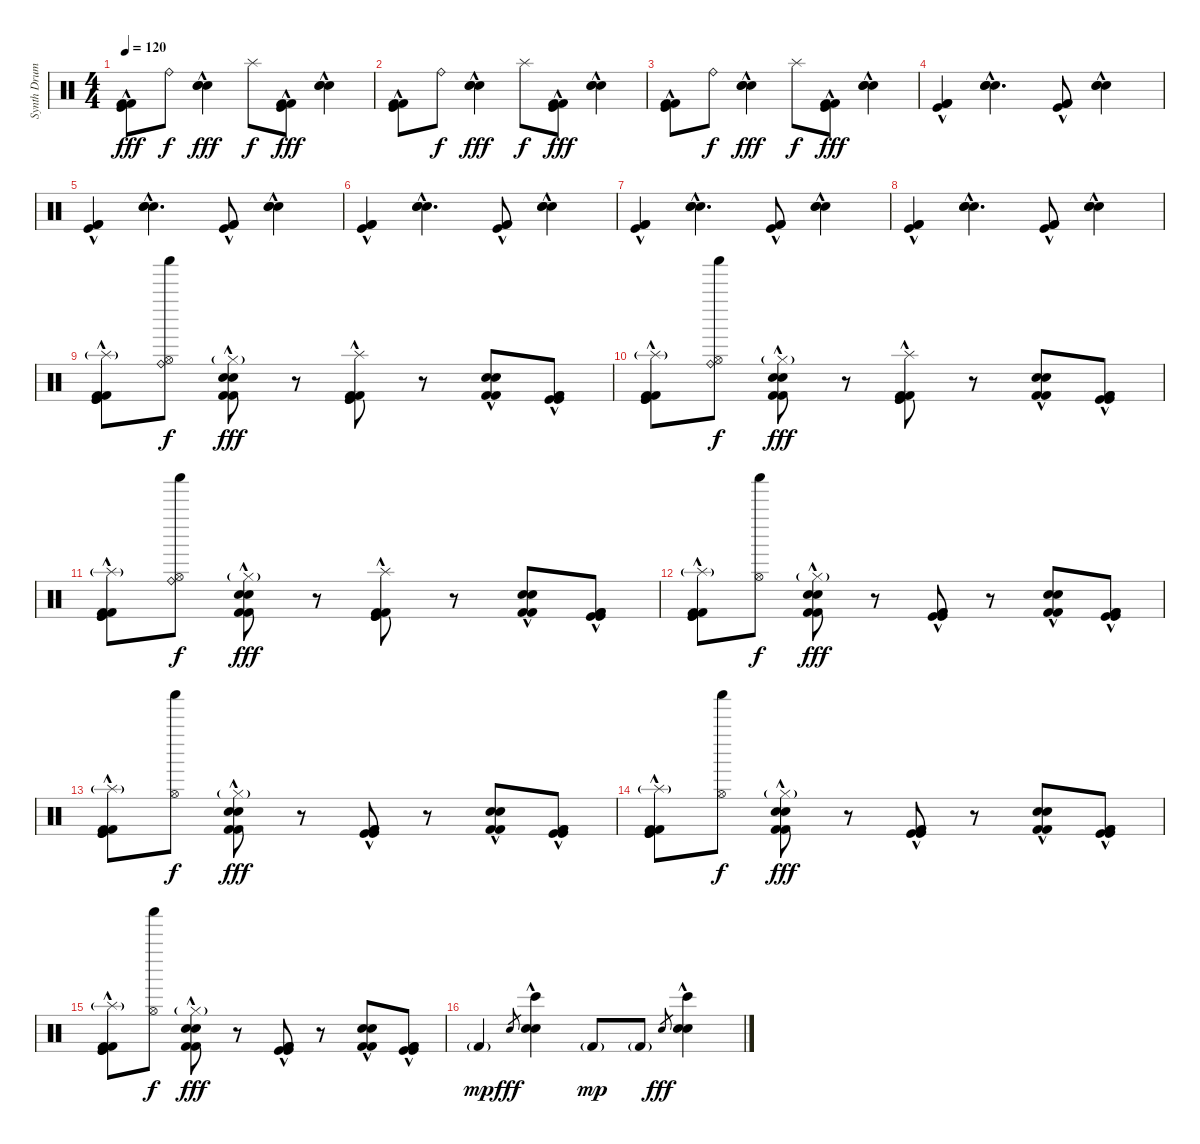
\track ("Synth Drum" "Synth Drum") {instrument percussion}
\staff {score}
\articulation defaults
\ts (4 4)
\tempo 120
\clef neutral
\ks c
("Kick (hit) 2"{hac} "Kick (hit)"{hac} "Kick (hit) 2"{hac}).8{dy fff} "Ride (bell)".8{dy f} ("Electric Snare (hit)"{hac} "Electric Snare (hit)"{hac} "Snare (hit) 2"{hac}).4{dy fff} "Splash (hit)".8{dy f} ("Kick (hit)"{hac} "Kick (hit) 2"{hac} "Kick (hit) 2"{hac}).8{dy fff} ("Electric Snare (hit)"{hac} "Electric Snare (hit)"{hac} "Snare (hit) 2"{hac}).4 |
("Kick (hit) 2"{hac} "Kick (hit)"{hac} "Kick (hit) 2"{hac}).8 "Ride (bell)".8{dy f} ("Electric Snare (hit)"{hac} "Electric Snare (hit)"{hac} "Snare (hit) 2"{hac}).4{dy fff} "Splash (hit)".8{dy f} ("Kick (hit)"{hac} "Kick (hit) 2"{hac} "Kick (hit) 2"{hac}).8{dy fff} ("Electric Snare (hit)"{hac} "Electric Snare (hit)"{hac} "Snare (hit) 2"{hac}).4 |
("Kick (hit) 2"{hac} "Kick (hit)"{hac} "Kick (hit) 2"{hac}).8 "Ride (bell)".8{dy f} ("Electric Snare (hit)"{hac} "Electric Snare (hit)"{hac} "Snare (hit) 2"{hac}).4{dy fff} "Splash (hit)".8{dy f} ("Kick (hit)"{hac} "Kick (hit) 2"{hac} "Kick (hit) 2"{hac}).8{dy fff} ("Electric Snare (hit)"{hac} "Electric Snare (hit)"{hac} "Snare (hit) 2"{hac}).4 |
("Kick (hit) 2"{hac} "Kick (hit)"{hac} "Kick (hit) 2"{hac}).4 ("Electric Snare (hit)"{hac} "Electric Snare (hit)"{hac} "Snare (hit) 2"{hac}).4{d} ("Kick (hit)"{hac} "Kick (hit) 2"{hac} "Kick (hit) 2"{hac}).8 ("Electric Snare (hit)"{hac} "Electric Snare (hit)"{hac} "Snare (hit) 2"{hac}).4 |
("Kick (hit) 2"{hac} "Kick (hit)"{hac} "Kick (hit) 2"{hac}).4 ("Electric Snare (hit)"{hac} "Electric Snare (hit)"{hac} "Snare (hit) 2"{hac}).4{d} ("Kick (hit)"{hac} "Kick (hit) 2"{hac} "Kick (hit) 2"{hac}).8 ("Electric Snare (hit)"{hac} "Electric Snare (hit)"{hac} "Snare (hit) 2"{hac}).4 |
("Kick (hit) 2"{hac} "Kick (hit)"{hac} "Kick (hit) 2"{hac}).4 ("Electric Snare (hit)"{hac} "Electric Snare (hit)"{hac} "Snare (hit) 2"{hac}).4{d} ("Kick (hit)"{hac} "Kick (hit) 2"{hac} "Kick (hit) 2"{hac}).8 ("Electric Snare (hit)"{hac} "Electric Snare (hit)"{hac} "Snare (hit) 2"{hac}).4 |
("Kick (hit) 2"{hac} "Kick (hit)"{hac} "Kick (hit) 2"{hac}).4 ("Electric Snare (hit)"{hac} "Electric Snare (hit)"{hac} "Snare (hit) 2"{hac}).4{d} ("Kick (hit)"{hac} "Kick (hit) 2"{hac} "Kick (hit) 2"{hac}).8 ("Electric Snare (hit)"{hac} "Electric Snare (hit)"{hac} "Snare (hit) 2"{hac}).4 |
("Kick (hit) 2"{hac} "Kick (hit)"{hac} "Kick (hit) 2"{hac}).4 ("Electric Snare (hit)"{hac} "Electric Snare (hit)"{hac} "Snare (hit) 2"{hac}).4{d} ("Kick (hit)"{hac} "Kick (hit) 2"{hac} "Kick (hit) 2"{hac}).8 ("Electric Snare (hit)"{hac} "Electric Snare (hit)"{hac} "Snare (hit) 2"{hac}).4 |
("Splash (hit)"{g} "Kick (hit)"{hac} "Kick (hit) 2"{hac} "Kick (hit)"{hac} "Kick (hit) 2"{hac}).8 ("Shaker (hit)" "Hi-Hat (open)" "Ride (bell)").8{dy f} ("Hi-Hat (closed)"{g} "Snare (hit) 2"{hac} "Electric Snare (hit)"{hac} "Kick (hit) 2"{hac} "Kick (hit) 2"{hac}).8{dy fff} r.8 ("Splash (hit)" "Kick (hit)"{hac} "Kick (hit)"{hac} "Kick (hit) 2"{hac} "Kick (hit) 2"{hac}).8 r.8 ("Snare (hit) 2"{hac} "Electric Snare (hit)"{hac} "Kick (hit) 2"{hac} "Kick (hit) 2"{hac}).8 ("Kick (hit)"{hac} "Kick (hit)"{hac} "Kick (hit) 2"{hac} "Kick (hit) 2"{hac}).8 |
("Splash (hit)"{g} "Kick (hit)"{hac} "Kick (hit) 2"{hac} "Kick (hit)"{hac} "Kick (hit) 2"{hac}).8 ("Shaker (hit)" "Hi-Hat (open)" "Ride (bell)").8{dy f} ("Hi-Hat (closed)"{g} "Snare (hit) 2"{hac} "Electric Snare (hit)"{hac} "Kick (hit) 2"{hac} "Kick (hit) 2"{hac}).8{dy fff} r.8 ("Splash (hit)" "Kick (hit)"{hac} "Kick (hit)"{hac} "Kick (hit) 2"{hac} "Kick (hit) 2"{hac}).8 r.8 ("Snare (hit) 2"{hac} "Electric Snare (hit)"{hac} "Kick (hit) 2"{hac} "Kick (hit) 2"{hac}).8 ("Kick (hit)"{hac} "Kick (hit)"{hac} "Kick (hit) 2"{hac} "Kick (hit) 2"{hac}).8 |
("Splash (hit)"{g} "Kick (hit)"{hac} "Kick (hit) 2"{hac} "Kick (hit)"{hac} "Kick (hit) 2"{hac}).8 ("Shaker (hit)" "Hi-Hat (open)" "Ride (bell)").8{dy f} ("Hi-Hat (closed)"{g} "Snare (hit) 2"{hac} "Electric Snare (hit)"{hac} "Kick (hit) 2"{hac} "Kick (hit) 2"{hac}).8{dy fff} r.8 ("Splash (hit)" "Kick (hit)"{hac} "Kick (hit)"{hac} "Kick (hit) 2"{hac} "Kick (hit) 2"{hac}).8 r.8 ("Snare (hit) 2"{hac} "Electric Snare (hit)"{hac} "Kick (hit) 2"{hac} "Kick (hit) 2"{hac}).8 ("Kick (hit)"{hac} "Kick (hit)"{hac} "Kick (hit) 2"{hac} "Kick (hit) 2"{hac}).8 |
("Splash (hit)"{g} "Kick (hit)"{hac} "Kick (hit) 2"{hac} "Kick (hit)"{hac} "Kick (hit) 2"{hac}).8 ("Shaker (hit)" "Hi-Hat (open)").8{dy f} ("Hi-Hat (closed)"{g} "Snare (hit) 2"{hac} "Electric Snare (hit)"{hac} "Kick (hit) 2"{hac} "Kick (hit) 2"{hac}).8{dy fff} r.8 ("Kick (hit)"{hac} "Kick (hit)"{hac} "Kick (hit) 2"{hac} "Kick (hit) 2"{hac}).8 r.8 ("Snare (hit) 2"{hac} "Electric Snare (hit)"{hac} "Kick (hit) 2"{hac} "Kick (hit) 2"{hac}).8 ("Kick (hit)"{hac} "Kick (hit)"{hac} "Kick (hit) 2"{hac} "Kick (hit) 2"{hac}).8 |
("Splash (hit)"{g} "Kick (hit)"{hac} "Kick (hit) 2"{hac} "Kick (hit)"{hac} "Kick (hit) 2"{hac}).8 ("Shaker (hit)" "Hi-Hat (open)").8{dy f} ("Hi-Hat (closed)"{g} "Snare (hit) 2"{hac} "Electric Snare (hit)"{hac} "Kick (hit) 2"{hac} "Kick (hit) 2"{hac}).8{dy fff} r.8 ("Kick (hit)"{hac} "Kick (hit)"{hac} "Kick (hit) 2"{hac} "Kick (hit) 2"{hac}).8 r.8 ("Snare (hit) 2"{hac} "Electric Snare (hit)"{hac} "Kick (hit) 2"{hac} "Kick (hit) 2"{hac}).8 ("Kick (hit)"{hac} "Kick (hit)"{hac} "Kick (hit) 2"{hac} "Kick (hit) 2"{hac}).8 |
("Splash (hit)"{g} "Kick (hit)"{hac} "Kick (hit) 2"{hac} "Kick (hit)"{hac} "Kick (hit) 2"{hac}).8 ("Shaker (hit)" "Hi-Hat (open)").8{dy f} ("Hi-Hat (closed)"{g} "Snare (hit) 2"{hac} "Electric Snare (hit)"{hac} "Kick (hit) 2"{hac} "Kick (hit) 2"{hac}).8{dy fff} r.8 ("Kick (hit)"{hac} "Kick (hit)"{hac} "Kick (hit) 2"{hac} "Kick (hit) 2"{hac}).8 r.8 ("Snare (hit) 2"{hac} "Electric Snare (hit)"{hac} "Kick (hit) 2"{hac} "Kick (hit) 2"{hac}).8 ("Kick (hit)"{hac} "Kick (hit)"{hac} "Kick (hit) 2"{hac} "Kick (hit) 2"{hac}).8 |
("Splash (hit)"{g} "Kick (hit)"{hac} "Kick (hit) 2"{hac} "Kick (hit)"{hac} "Kick (hit) 2"{hac}).8 ("Shaker (hit)" "Hi-Hat (open)").8{dy f} ("Hi-Hat (closed)"{g} "Snare (hit) 2"{hac} "Electric Snare (hit)"{hac} "Kick (hit) 2"{hac} "Kick (hit) 2"{hac}).8{dy fff} r.8 ("Kick (hit)"{hac} "Kick (hit)"{hac} "Kick (hit) 2"{hac} "Kick (hit) 2"{hac}).8 r.8 ("Snare (hit) 2"{hac} "Electric Snare (hit)"{hac} "Kick (hit) 2"{hac} "Kick (hit) 2"{hac}).8 ("Kick (hit)"{hac} "Kick (hit)"{hac} "Kick (hit) 2"{hac} "Kick (hit) 2"{hac}).8 |
"Kick (hit) 2"{g}.4{dy mp} "Snare (hit)".8{gr dy fff} ("Electric Snare (hit)"{hac} "Bongo High (hit)"{hac} "Hand Clap (hit)"{hac}).4 "Kick (hit) 2"{g}.8{dy mp} "Kick (hit) 2"{g}.8 "Snare (hit)".8{gr dy fff} ("Electric Snare (hit)"{hac} "Bongo High (hit)"{hac} "Hand Clap (hit)"{hac}).4
